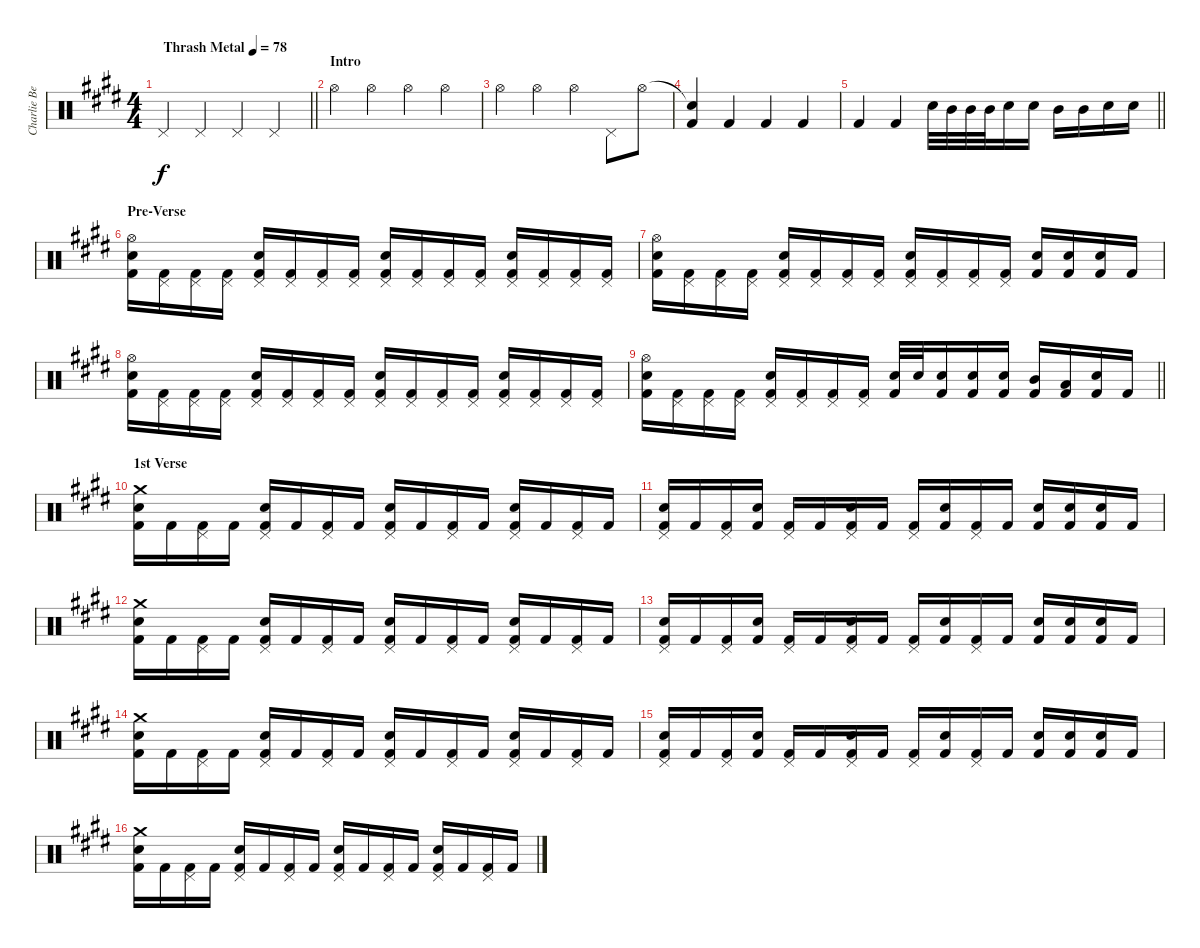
\track ("Charlie Benate " "Charlie Be") {instrument percussion}
\staff {score}
\articulation defaults
\ts (4 4)
\tempo (78 "Thrash Metal")
\clef neutral
\barLineRight lightlight
\ks e "Pedal Hi-Hat (hit)".4{dy f} "Pedal Hi-Hat (hit)".4 "Pedal Hi-Hat (hit)".4 "Pedal Hi-Hat (hit)".4
|
\section ("" "Intro")
"Hi-Hat (open)".4 "Hi-Hat (open)".4 "Hi-Hat (open)".4 "Hi-Hat (open)".4 |
"Hi-Hat (open)".4 "Hi-Hat (open)".4 "Hi-Hat (open)".4 "Pedal Hi-Hat (hit)".8 "Hi-Hat (open)".8 |
("Snare (hit)"{t} "Kick (hit) 2").4 "Kick (hit) 2".4 "Kick (hit) 2".4 "Kick (hit) 2".4 |
\barLineRight lightlight "Kick (hit) 2".4 "Kick (hit) 2".4 "Snare (hit) 2".32 "Mid Tom (hit)".32 "Mid Tom (hit)".32 "Mid Tom (hit)".32 "Snare (hit) 2".16 "Snare (hit) 2".16 "Mid Tom (hit)".16 "Mid Tom (hit)".16 "Snare (hit) 2".16 "Snare (hit) 2".16
|
\section ("" "Pre-Verse")
("Hi-Hat (open)" "Snare (hit) 2" "Kick (hit) 2").16 ("Pedal Hi-Hat (hit)" "Kick (hit) 2").16 ("Pedal Hi-Hat (hit)" "Kick (hit) 2").16 ("Pedal Hi-Hat (hit)" "Kick (hit) 2").16 ("Pedal Hi-Hat (hit)" "Snare (hit) 2" "Kick (hit) 2").16 ("Pedal Hi-Hat (hit)" "Kick (hit) 2").16 ("Pedal Hi-Hat (hit)" "Kick (hit) 2").16 ("Pedal Hi-Hat (hit)" "Kick (hit) 2").16 ("Pedal Hi-Hat (hit)" "Snare (hit) 2" "Kick (hit) 2").16 ("Pedal Hi-Hat (hit)" "Kick (hit) 2").16 ("Pedal Hi-Hat (hit)" "Kick (hit) 2").16 ("Pedal Hi-Hat (hit)" "Kick (hit) 2").16 ("Pedal Hi-Hat (hit)" "Snare (hit) 2" "Kick (hit) 2").16 ("Pedal Hi-Hat (hit)" "Kick (hit) 2").16 ("Pedal Hi-Hat (hit)" "Kick (hit) 2").16 ("Pedal Hi-Hat (hit)" "Kick (hit) 2").16 |
("Hi-Hat (open)" "Snare (hit) 2" "Kick (hit) 2").16 ("Pedal Hi-Hat (hit)" "Kick (hit) 2").16 ("Pedal Hi-Hat (hit)" "Kick (hit) 2").16 ("Pedal Hi-Hat (hit)" "Kick (hit) 2").16 ("Pedal Hi-Hat (hit)" "Snare (hit) 2" "Kick (hit) 2").16 ("Pedal Hi-Hat (hit)" "Kick (hit) 2").16 ("Pedal Hi-Hat (hit)" "Kick (hit) 2").16 ("Pedal Hi-Hat (hit)" "Kick (hit) 2").16 ("Pedal Hi-Hat (hit)" "Snare (hit) 2" "Kick (hit) 2").16 ("Pedal Hi-Hat (hit)" "Kick (hit) 2").16 ("Pedal Hi-Hat (hit)" "Kick (hit) 2").16 ("Pedal Hi-Hat (hit)" "Kick (hit) 2").16 ("Snare (hit) 2" "Kick (hit) 2").16 ("Snare (hit) 2" "Kick (hit) 2").16 ("Snare (hit) 2" "Kick (hit) 2").16 "Kick (hit) 2".16 |
("Hi-Hat (open)" "Snare (hit) 2" "Kick (hit) 2").16 ("Pedal Hi-Hat (hit)" "Kick (hit) 2").16 ("Pedal Hi-Hat (hit)" "Kick (hit) 2").16 ("Pedal Hi-Hat (hit)" "Kick (hit) 2").16 ("Pedal Hi-Hat (hit)" "Snare (hit) 2" "Kick (hit) 2").16 ("Pedal Hi-Hat (hit)" "Kick (hit) 2").16 ("Pedal Hi-Hat (hit)" "Kick (hit) 2").16 ("Pedal Hi-Hat (hit)" "Kick (hit) 2").16 ("Pedal Hi-Hat (hit)" "Snare (hit) 2" "Kick (hit) 2").16 ("Pedal Hi-Hat (hit)" "Kick (hit) 2").16 ("Pedal Hi-Hat (hit)" "Kick (hit) 2").16 ("Pedal Hi-Hat (hit)" "Kick (hit) 2").16 ("Pedal Hi-Hat (hit)" "Snare (hit) 2" "Kick (hit) 2").16 ("Pedal Hi-Hat (hit)" "Kick (hit) 2").16 ("Pedal Hi-Hat (hit)" "Kick (hit) 2").16 ("Pedal Hi-Hat (hit)" "Kick (hit) 2").16 |
\barLineRight lightlight
("Hi-Hat (open)" "Snare (hit) 2" "Kick (hit) 2").16 ("Pedal Hi-Hat (hit)" "Kick (hit) 2").16 ("Pedal Hi-Hat (hit)" "Kick (hit) 2").16 ("Pedal Hi-Hat (hit)" "Kick (hit) 2").16 ("Pedal Hi-Hat (hit)" "Snare (hit) 2" "Kick (hit) 2").16 ("Pedal Hi-Hat (hit)" "Kick (hit) 2").16 ("Pedal Hi-Hat (hit)" "Kick (hit) 2").16 ("Pedal Hi-Hat (hit)" "Kick (hit) 2").16 ("Snare (hit) 2" "Kick (hit) 2").32 "Snare (hit) 2".32 ("Snare (hit) 2" "Kick (hit) 2").16 ("Snare (hit) 2" "Kick (hit) 2").16 ("Snare (hit) 2" "Kick (hit) 2").16 ("Mid Tom (hit)" "Kick (hit) 2").16 ("Low Tom (hit)" "Kick (hit) 2").16 ("Snare (hit) 2" "Kick (hit) 2").16 "Kick (hit) 2".16 |
\section ("" "1st Verse")
("Crash medium (hit)" "Snare (hit) 2" "Kick (hit) 2").16 "Kick (hit) 2".16 ("Pedal Hi-Hat (hit)" "Kick (hit) 2").16 "Kick (hit) 2".16 ("Pedal Hi-Hat (hit)" "Snare (hit) 2" "Kick (hit) 2").16 "Kick (hit) 2".16 ("Pedal Hi-Hat (hit)" "Kick (hit) 2").16 "Kick (hit) 2".16 ("Pedal Hi-Hat (hit)" "Snare (hit) 2" "Kick (hit) 2").16 "Kick (hit) 2".16 ("Pedal Hi-Hat (hit)" "Kick (hit) 2").16 "Kick (hit) 2".16 ("Pedal Hi-Hat (hit)" "Snare (hit) 2" "Kick (hit) 2").16 "Kick (hit) 2".16 ("Pedal Hi-Hat (hit)" "Kick (hit) 2").16 "Kick (hit) 2".16 |
("Pedal Hi-Hat (hit)" "Snare (hit) 2" "Kick (hit) 2").16 "Kick (hit) 2".16 ("Pedal Hi-Hat (hit)" "Kick (hit) 2").16 ("Snare (hit) 2" "Kick (hit) 2").16 ("Pedal Hi-Hat (hit)" "Kick (hit) 2").16 "Kick (hit) 2".16 ("Pedal Hi-Hat (hit)" "Snare (hit) 2" "Kick (hit) 2").16 "Kick (hit) 2".16 ("Pedal Hi-Hat (hit)" "Kick (hit) 2").16 ("Snare (hit) 2" "Kick (hit) 2").16 ("Pedal Hi-Hat (hit)" "Kick (hit) 2").16 "Kick (hit) 2".16 ("Snare (hit) 2" "Kick (hit) 2").16 ("Snare (hit) 2" "Kick (hit) 2").16 ("Snare (hit) 2" "Kick (hit) 2").16 "Kick (hit) 2".16 |
("Crash medium (hit)" "Snare (hit) 2" "Kick (hit) 2").16 "Kick (hit) 2".16 ("Pedal Hi-Hat (hit)" "Kick (hit) 2").16 "Kick (hit) 2".16 ("Pedal Hi-Hat (hit)" "Snare (hit) 2" "Kick (hit) 2").16 "Kick (hit) 2".16 ("Pedal Hi-Hat (hit)" "Kick (hit) 2").16 "Kick (hit) 2".16 ("Pedal Hi-Hat (hit)" "Snare (hit) 2" "Kick (hit) 2").16 "Kick (hit) 2".16 ("Pedal Hi-Hat (hit)" "Kick (hit) 2").16 "Kick (hit) 2".16 ("Pedal Hi-Hat (hit)" "Snare (hit) 2" "Kick (hit) 2").16 "Kick (hit) 2".16 ("Pedal Hi-Hat (hit)" "Kick (hit) 2").16 "Kick (hit) 2".16 |
("Pedal Hi-Hat (hit)" "Snare (hit) 2" "Kick (hit) 2").16 "Kick (hit) 2".16 ("Pedal Hi-Hat (hit)" "Kick (hit) 2").16 ("Snare (hit) 2" "Kick (hit) 2").16 ("Pedal Hi-Hat (hit)" "Kick (hit) 2").16 "Kick (hit) 2".16 ("Pedal Hi-Hat (hit)" "Snare (hit) 2" "Kick (hit) 2").16 "Kick (hit) 2".16 ("Pedal Hi-Hat (hit)" "Kick (hit) 2").16 ("Snare (hit) 2" "Kick (hit) 2").16 ("Pedal Hi-Hat (hit)" "Kick (hit) 2").16 "Kick (hit) 2".16 ("Snare (hit) 2" "Kick (hit) 2").16 ("Snare (hit) 2" "Kick (hit) 2").16 ("Snare (hit) 2" "Kick (hit) 2").16 "Kick (hit) 2".16 |
("Crash medium (hit)" "Snare (hit) 2" "Kick (hit) 2").16 "Kick (hit) 2".16 ("Pedal Hi-Hat (hit)" "Kick (hit) 2").16 "Kick (hit) 2".16 ("Pedal Hi-Hat (hit)" "Snare (hit) 2" "Kick (hit) 2").16 "Kick (hit) 2".16 ("Pedal Hi-Hat (hit)" "Kick (hit) 2").16 "Kick (hit) 2".16 ("Pedal Hi-Hat (hit)" "Snare (hit) 2" "Kick (hit) 2").16 "Kick (hit) 2".16 ("Pedal Hi-Hat (hit)" "Kick (hit) 2").16 "Kick (hit) 2".16 ("Pedal Hi-Hat (hit)" "Snare (hit) 2" "Kick (hit) 2").16 "Kick (hit) 2".16 ("Pedal Hi-Hat (hit)" "Kick (hit) 2").16 "Kick (hit) 2".16 |
("Pedal Hi-Hat (hit)" "Snare (hit) 2" "Kick (hit) 2").16 "Kick (hit) 2".16 ("Pedal Hi-Hat (hit)" "Kick (hit) 2").16 ("Snare (hit) 2" "Kick (hit) 2").16 ("Pedal Hi-Hat (hit)" "Kick (hit) 2").16 "Kick (hit) 2".16 ("Pedal Hi-Hat (hit)" "Snare (hit) 2" "Kick (hit) 2").16 "Kick (hit) 2".16 ("Pedal Hi-Hat (hit)" "Kick (hit) 2").16 ("Snare (hit) 2" "Kick (hit) 2").16 ("Pedal Hi-Hat (hit)" "Kick (hit) 2").16 "Kick (hit) 2".16 ("Snare (hit) 2" "Kick (hit) 2").16 ("Snare (hit) 2" "Kick (hit) 2").16 ("Snare (hit) 2" "Kick (hit) 2").16 "Kick (hit) 2".16 |
("Crash medium (hit)" "Snare (hit) 2" "Kick (hit) 2").16 "Kick (hit) 2".16 ("Pedal Hi-Hat (hit)" "Kick (hit) 2").16 "Kick (hit) 2".16 ("Pedal Hi-Hat (hit)" "Snare (hit) 2" "Kick (hit) 2").16 "Kick (hit) 2".16 ("Pedal Hi-Hat (hit)" "Kick (hit) 2").16 "Kick (hit) 2".16 ("Pedal Hi-Hat (hit)" "Snare (hit) 2" "Kick (hit) 2").16 "Kick (hit) 2".16 ("Pedal Hi-Hat (hit)" "Kick (hit) 2").16 "Kick (hit) 2".16 ("Pedal Hi-Hat (hit)" "Snare (hit) 2" "Kick (hit) 2").16 "Kick (hit) 2".16 ("Pedal Hi-Hat (hit)" "Kick (hit) 2").16 "Kick (hit) 2".16
